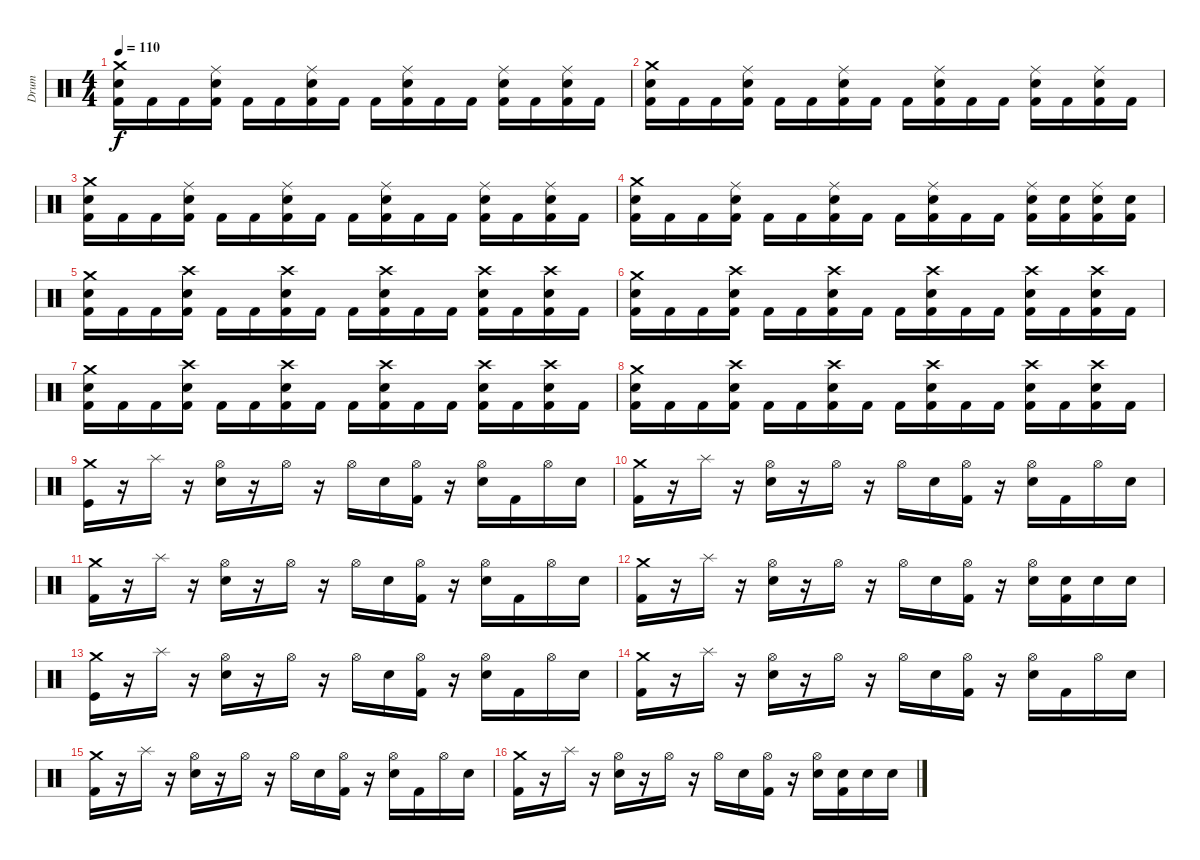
\track ("Drum" "Drum") {instrument percussion}
\staff {score}
\articulation defaults
\ts (4 4)
\tempo 110
\clef neutral
\ks c
("Crash medium (hit)" "Electric Snare (hit)" "Kick (hit) 2").16{dy f} "Kick (hit) 2".16 "Kick (hit) 2".16 ("Ride (middle)" "Electric Snare (hit)" "Kick (hit) 2").16 "Kick (hit) 2".16 "Kick (hit) 2".16 ("Ride (middle)" "Electric Snare (hit)" "Kick (hit) 2").16 "Kick (hit) 2".16 "Kick (hit) 2".16 ("Ride (middle)" "Electric Snare (hit)" "Kick (hit) 2").16 "Kick (hit) 2".16 "Kick (hit) 2".16 ("Ride (middle)" "Electric Snare (hit)" "Kick (hit) 2").16 "Kick (hit) 2".16 ("Ride (middle)" "Electric Snare (hit)" "Kick (hit) 2").16 "Kick (hit) 2".16 |
("Crash medium (hit)" "Electric Snare (hit)" "Kick (hit) 2").16 "Kick (hit) 2".16 "Kick (hit) 2".16 ("Ride (middle)" "Electric Snare (hit)" "Kick (hit) 2").16 "Kick (hit) 2".16 "Kick (hit) 2".16 ("Ride (middle)" "Electric Snare (hit)" "Kick (hit) 2").16 "Kick (hit) 2".16 "Kick (hit) 2".16 ("Ride (middle)" "Electric Snare (hit)" "Kick (hit) 2").16 "Kick (hit) 2".16 "Kick (hit) 2".16 ("Ride (middle)" "Electric Snare (hit)" "Kick (hit) 2").16 "Kick (hit) 2".16 ("Ride (middle)" "Electric Snare (hit)" "Kick (hit) 2").16 "Kick (hit) 2".16 |
("Crash medium (hit)" "Electric Snare (hit)" "Kick (hit) 2").16 "Kick (hit) 2".16 "Kick (hit) 2".16 ("Ride (middle)" "Electric Snare (hit)" "Kick (hit) 2").16 "Kick (hit) 2".16 "Kick (hit) 2".16 ("Ride (middle)" "Electric Snare (hit)" "Kick (hit) 2").16 "Kick (hit) 2".16 "Kick (hit) 2".16 ("Ride (middle)" "Electric Snare (hit)" "Kick (hit) 2").16 "Kick (hit) 2".16 "Kick (hit) 2".16 ("Ride (middle)" "Electric Snare (hit)" "Kick (hit) 2").16 "Kick (hit) 2".16 ("Ride (middle)" "Electric Snare (hit)" "Kick (hit) 2").16 "Kick (hit) 2".16 |
("Crash medium (hit)" "Electric Snare (hit)" "Kick (hit) 2").16 "Kick (hit) 2".16 "Kick (hit) 2".16 ("Ride (middle)" "Electric Snare (hit)" "Kick (hit) 2").16 "Kick (hit) 2".16 "Kick (hit) 2".16 ("Ride (middle)" "Electric Snare (hit)" "Kick (hit) 2").16 "Kick (hit) 2".16 "Kick (hit) 2".16 ("Ride (middle)" "Electric Snare (hit)" "Kick (hit) 2").16 "Kick (hit) 2".16 "Kick (hit) 2".16 ("Ride (middle)" "Electric Snare (hit)" "Kick (hit) 2").16 ("Electric Snare (hit)" "Kick (hit) 2").16 ("Ride (middle)" "Electric Snare (hit)" "Kick (hit) 2").16 ("Electric Snare (hit)" "Kick (hit) 2").16 |
("Crash medium (hit)" "Electric Snare (hit)" "Kick (hit) 2").16 "Kick (hit) 2".16 "Kick (hit) 2".16 ("Crash high (hit)" "Electric Snare (hit)" "Kick (hit) 2").16 "Kick (hit) 2".16 "Kick (hit) 2".16 ("Crash high (hit)" "Electric Snare (hit)" "Kick (hit) 2").16 "Kick (hit) 2".16 "Kick (hit) 2".16 ("Crash high (hit)" "Electric Snare (hit)" "Kick (hit) 2").16 "Kick (hit) 2".16 "Kick (hit) 2".16 ("Crash high (hit)" "Electric Snare (hit)" "Kick (hit) 2").16 "Kick (hit) 2".16 ("Crash high (hit)" "Electric Snare (hit)" "Kick (hit) 2").16 "Kick (hit) 2".16 |
("Crash medium (hit)" "Electric Snare (hit)" "Kick (hit) 2").16 "Kick (hit) 2".16 "Kick (hit) 2".16 ("Crash high (hit)" "Electric Snare (hit)" "Kick (hit) 2").16 "Kick (hit) 2".16 "Kick (hit) 2".16 ("Crash high (hit)" "Electric Snare (hit)" "Kick (hit) 2").16 "Kick (hit) 2".16 "Kick (hit) 2".16 ("Crash high (hit)" "Electric Snare (hit)" "Kick (hit) 2").16 "Kick (hit) 2".16 "Kick (hit) 2".16 ("Crash high (hit)" "Electric Snare (hit)" "Kick (hit) 2").16 "Kick (hit) 2".16 ("Crash high (hit)" "Electric Snare (hit)" "Kick (hit) 2").16 "Kick (hit) 2".16 |
("Crash medium (hit)" "Electric Snare (hit)" "Kick (hit) 2").16 "Kick (hit) 2".16 "Kick (hit) 2".16 ("Crash high (hit)" "Electric Snare (hit)" "Kick (hit) 2").16 "Kick (hit) 2".16 "Kick (hit) 2".16 ("Crash high (hit)" "Electric Snare (hit)" "Kick (hit) 2").16 "Kick (hit) 2".16 "Kick (hit) 2".16 ("Crash high (hit)" "Electric Snare (hit)" "Kick (hit) 2").16 "Kick (hit) 2".16 "Kick (hit) 2".16 ("Crash high (hit)" "Electric Snare (hit)" "Kick (hit) 2").16 "Kick (hit) 2".16 ("Crash high (hit)" "Electric Snare (hit)" "Kick (hit) 2").16 "Kick (hit) 2".16 |
("Crash medium (hit)" "Electric Snare (hit)" "Kick (hit) 2").16 "Kick (hit) 2".16 "Kick (hit) 2".16 ("Crash high (hit)" "Electric Snare (hit)" "Kick (hit) 2").16 "Kick (hit) 2".16 "Kick (hit) 2".16 ("Crash high (hit)" "Electric Snare (hit)" "Kick (hit) 2").16 "Kick (hit) 2".16 "Kick (hit) 2".16 ("Crash high (hit)" "Electric Snare (hit)" "Kick (hit) 2").16 "Kick (hit) 2".16 "Kick (hit) 2".16 ("Crash high (hit)" "Electric Snare (hit)" "Kick (hit) 2").16 "Kick (hit) 2".16 ("Crash high (hit)" "Electric Snare (hit)" "Kick (hit) 2").16 "Kick (hit) 2".16 |
("Crash medium (hit)" "Kick (hit)").16 r.16 "Splash (hit)".16 r.16 ("Hi-Hat (open)" "Electric Snare (hit)").16 r.16 "Hi-Hat (open)".16 r.16 "Hi-Hat (open)".16 "Electric Snare (hit)".16 ("Hi-Hat (open)" "Kick (hit) 2").16 r.16 ("Hi-Hat (open)" "Electric Snare (hit)").16 "Kick (hit) 2".16 "Hi-Hat (open)".16 "Electric Snare (hit)".16 |
("Crash medium (hit)" "Kick (hit) 2").16 r.16 "Splash (hit)".16 r.16 ("Hi-Hat (open)" "Electric Snare (hit)").16 r.16 "Hi-Hat (open)".16 r.16 "Hi-Hat (open)".16 "Electric Snare (hit)".16 ("Hi-Hat (open)" "Kick (hit) 2").16 r.16 ("Hi-Hat (open)" "Electric Snare (hit)").16 "Kick (hit) 2".16 "Hi-Hat (open)".16 "Electric Snare (hit)".16 |
("Crash medium (hit)" "Kick (hit) 2").16 r.16 "Splash (hit)".16 r.16 ("Hi-Hat (open)" "Electric Snare (hit)").16 r.16 "Hi-Hat (open)".16 r.16 "Hi-Hat (open)".16 "Electric Snare (hit)".16 ("Hi-Hat (open)" "Kick (hit) 2").16 r.16 ("Hi-Hat (open)" "Electric Snare (hit)").16 "Kick (hit) 2".16 "Hi-Hat (open)".16 "Electric Snare (hit)".16 |
("Crash medium (hit)" "Kick (hit) 2").16 r.16 "Splash (hit)".16 r.16 ("Hi-Hat (open)" "Electric Snare (hit)").16 r.16 "Hi-Hat (open)".16 r.16 "Hi-Hat (open)".16 "Electric Snare (hit)".16 ("Hi-Hat (open)" "Kick (hit) 2").16 r.16 ("Hi-Hat (open)" "Electric Snare (hit)").16 ("Electric Snare (hit)" "Kick (hit) 2").16 "Electric Snare (hit)".16 "Electric Snare (hit)".16 |
("Crash medium (hit)" "Kick (hit)").16 r.16 "Splash (hit)".16 r.16 ("Hi-Hat (open)" "Electric Snare (hit)").16 r.16 "Hi-Hat (open)".16 r.16 "Hi-Hat (open)".16 "Electric Snare (hit)".16 ("Hi-Hat (open)" "Kick (hit) 2").16 r.16 ("Hi-Hat (open)" "Electric Snare (hit)").16 "Kick (hit) 2".16 "Hi-Hat (open)".16 "Electric Snare (hit)".16 |
("Crash medium (hit)" "Kick (hit) 2").16 r.16 "Splash (hit)".16 r.16 ("Hi-Hat (open)" "Electric Snare (hit)").16 r.16 "Hi-Hat (open)".16 r.16 "Hi-Hat (open)".16 "Electric Snare (hit)".16 ("Hi-Hat (open)" "Kick (hit) 2").16 r.16 ("Hi-Hat (open)" "Electric Snare (hit)").16 "Kick (hit) 2".16 "Hi-Hat (open)".16 "Electric Snare (hit)".16 |
("Crash medium (hit)" "Kick (hit) 2").16 r.16 "Splash (hit)".16 r.16 ("Hi-Hat (open)" "Electric Snare (hit)").16 r.16 "Hi-Hat (open)".16 r.16 "Hi-Hat (open)".16 "Electric Snare (hit)".16 ("Hi-Hat (open)" "Kick (hit) 2").16 r.16 ("Hi-Hat (open)" "Electric Snare (hit)").16 "Kick (hit) 2".16 "Hi-Hat (open)".16 "Electric Snare (hit)".16 |
("Crash medium (hit)" "Kick (hit) 2").16 r.16 "Splash (hit)".16 r.16 ("Hi-Hat (open)" "Electric Snare (hit)").16 r.16 "Hi-Hat (open)".16 r.16 "Hi-Hat (open)".16 "Electric Snare (hit)".16 ("Hi-Hat (open)" "Kick (hit) 2").16 r.16 ("Hi-Hat (open)" "Electric Snare (hit)").16 ("Electric Snare (hit)" "Kick (hit) 2").16 "Electric Snare (hit)".16 "Electric Snare (hit)".16
